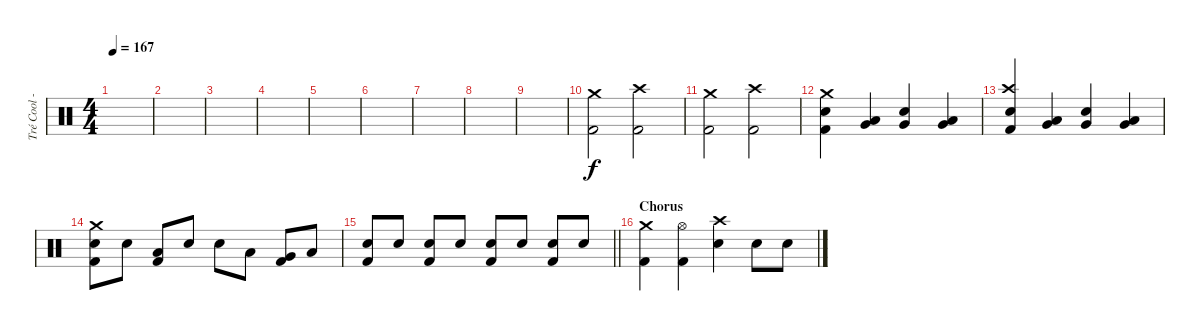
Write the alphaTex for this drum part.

\track ("Tré Cool - Drums" "Tré Cool -") {instrument percussion}
\staff {score}
\articulation defaults
\ts (4 4)
\tempo 167
\clef neutral
\ks c
|
|
|
|
|
|
|
|
|
("Crash medium (hit)" "Kick (hit) 2").2 ("Crash high (hit)" "Kick (hit) 2").2 |
("Crash medium (hit)" "Kick (hit) 2").2 ("Crash high (hit)" "Kick (hit) 2").2 |
("Crash medium (hit)" "Electric Snare (hit)" "Kick (hit) 2").4 ("Very Low Tom (hit)" "Low Floor Tom (hit)").4 ("Electric Snare (hit)" "Very Low Tom (hit)").4 ("Very Low Tom (hit)" "Low Floor Tom (hit)").4 |
("Crash high (hit)" "Electric Snare (hit)" "Kick (hit) 2").4 ("Very Low Tom (hit)" "Low Floor Tom (hit)").4 ("Electric Snare (hit)" "Very Low Tom (hit)").4 ("Very Low Tom (hit)" "Low Floor Tom (hit)").4 |
("Crash medium (hit)" "Electric Snare (hit)" "Kick (hit) 2").8 "Electric Snare (hit)".8 ("Low Floor Tom (hit)" "Kick (hit) 2").8 "Electric Snare (hit)".8 "Electric Snare (hit)".8 "Low Floor Tom (hit)".8 ("Very Low Tom (hit)" "Kick (hit) 2").8 "Low Floor Tom (hit)".8 |
\barLineRight lightlight
("Electric Snare (hit)" "Kick (hit) 2").8 "Electric Snare (hit)".8 ("Electric Snare (hit)" "Kick (hit) 2").8 "Electric Snare (hit)".8 ("Electric Snare (hit)" "Kick (hit) 2").8 "Electric Snare (hit)".8 ("Electric Snare (hit)" "Kick (hit) 2").8 "Electric Snare (hit)".8 |
\section ("" "Chorus")
("Crash medium (hit)" "Kick (hit) 2").4 ("Hi-Hat (open)" "Kick (hit) 2").4 ("Crash high (hit)" "Electric Snare (hit)").4 "Electric Snare (hit)".8 "Electric Snare (hit)".8
